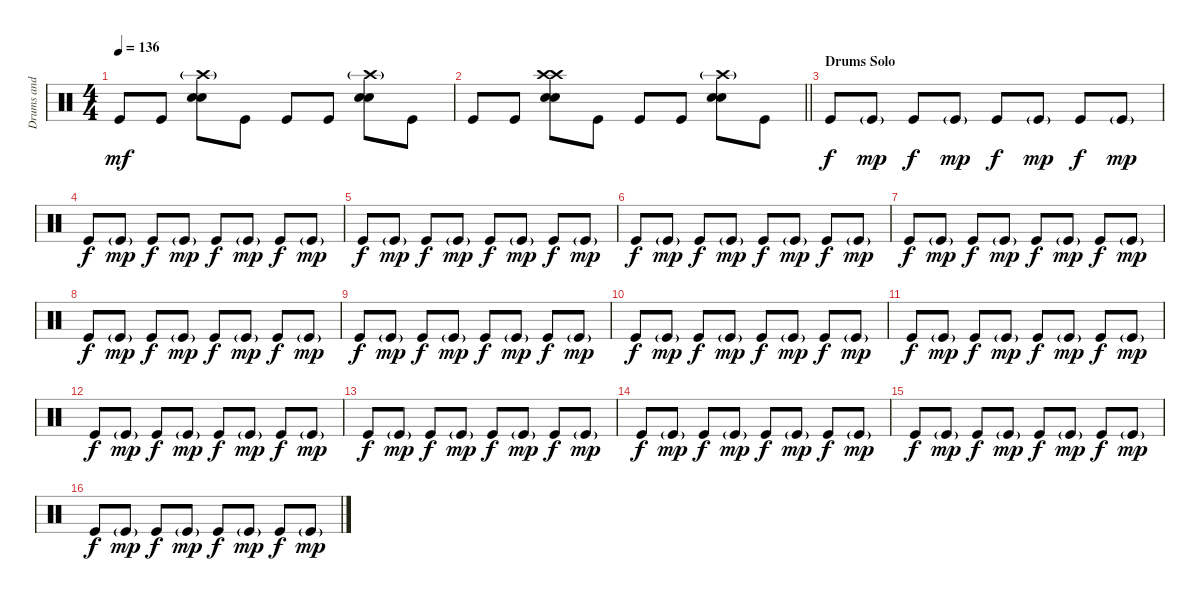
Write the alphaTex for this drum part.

\track ("Drums and Percussions" "Drums and ") {instrument percussion}
\staff {score}
\articulation defaults
\ts (4 4)
\tempo 136
\clef neutral
\ks c "Kick (hit)".8{dy mf} "Kick (hit)".8
("Crash high (hit)"{g} "Electric Snare (hit)" "Electric Snare (hit)").8 "Kick (hit)".8 "Kick (hit)".8 "Kick (hit)".8 ("Crash high (hit)"{g} "Electric Snare (hit)" "Electric Snare (hit)").8 "Kick (hit)".8 |
\barLineRight lightlight "Kick (hit)".8 "Kick (hit)".8
("Crash high (hit)" "Crash high (hit)" "Electric Snare (hit)" "Electric Snare (hit)").8 "Kick (hit)".8 "Kick (hit)".8 "Kick (hit)".8 ("Crash high (hit)"{g} "Electric Snare (hit)" "Electric Snare (hit)").8 "Kick (hit)".8 |
\section ("" "Drums Solo")
"Kick (hit)".8{dy f} "Kick (hit)"{g}.8{dy mp} "Kick (hit)".8{dy f} "Kick (hit)"{g}.8{dy mp} "Kick (hit)".8{dy f} "Kick (hit)"{g}.8{dy mp} "Kick (hit)".8{dy f} "Kick (hit)"{g}.8{dy mp} |
"Kick (hit)".8{dy f} "Kick (hit)"{g}.8{dy mp} "Kick (hit)".8{dy f} "Kick (hit)"{g}.8{dy mp} "Kick (hit)".8{dy f} "Kick (hit)"{g}.8{dy mp} "Kick (hit)".8{dy f} "Kick (hit)"{g}.8{dy mp} |
"Kick (hit)".8{dy f} "Kick (hit)"{g}.8{dy mp} "Kick (hit)".8{dy f} "Kick (hit)"{g}.8{dy mp} "Kick (hit)".8{dy f} "Kick (hit)"{g}.8{dy mp} "Kick (hit)".8{dy f} "Kick (hit)"{g}.8{dy mp} |
"Kick (hit)".8{dy f} "Kick (hit)"{g}.8{dy mp} "Kick (hit)".8{dy f} "Kick (hit)"{g}.8{dy mp} "Kick (hit)".8{dy f} "Kick (hit)"{g}.8{dy mp} "Kick (hit)".8{dy f} "Kick (hit)"{g}.8{dy mp} |
"Kick (hit)".8{dy f} "Kick (hit)"{g}.8{dy mp} "Kick (hit)".8{dy f} "Kick (hit)"{g}.8{dy mp} "Kick (hit)".8{dy f} "Kick (hit)"{g}.8{dy mp} "Kick (hit)".8{dy f} "Kick (hit)"{g}.8{dy mp} |
"Kick (hit)".8{dy f} "Kick (hit)"{g}.8{dy mp} "Kick (hit)".8{dy f} "Kick (hit)"{g}.8{dy mp} "Kick (hit)".8{dy f} "Kick (hit)"{g}.8{dy mp} "Kick (hit)".8{dy f} "Kick (hit)"{g}.8{dy mp} |
"Kick (hit)".8{dy f} "Kick (hit)"{g}.8{dy mp} "Kick (hit)".8{dy f} "Kick (hit)"{g}.8{dy mp} "Kick (hit)".8{dy f} "Kick (hit)"{g}.8{dy mp} "Kick (hit)".8{dy f} "Kick (hit)"{g}.8{dy mp} |
"Kick (hit)".8{dy f} "Kick (hit)"{g}.8{dy mp} "Kick (hit)".8{dy f} "Kick (hit)"{g}.8{dy mp} "Kick (hit)".8{dy f} "Kick (hit)"{g}.8{dy mp} "Kick (hit)".8{dy f} "Kick (hit)"{g}.8{dy mp} |
"Kick (hit)".8{dy f} "Kick (hit)"{g}.8{dy mp} "Kick (hit)".8{dy f} "Kick (hit)"{g}.8{dy mp} "Kick (hit)".8{dy f} "Kick (hit)"{g}.8{dy mp} "Kick (hit)".8{dy f} "Kick (hit)"{g}.8{dy mp} |
"Kick (hit)".8{dy f} "Kick (hit)"{g}.8{dy mp} "Kick (hit)".8{dy f} "Kick (hit)"{g}.8{dy mp} "Kick (hit)".8{dy f} "Kick (hit)"{g}.8{dy mp} "Kick (hit)".8{dy f} "Kick (hit)"{g}.8{dy mp} |
"Kick (hit)".8{dy f} "Kick (hit)"{g}.8{dy mp} "Kick (hit)".8{dy f} "Kick (hit)"{g}.8{dy mp} "Kick (hit)".8{dy f} "Kick (hit)"{g}.8{dy mp} "Kick (hit)".8{dy f} "Kick (hit)"{g}.8{dy mp} |
"Kick (hit)".8{dy f} "Kick (hit)"{g}.8{dy mp} "Kick (hit)".8{dy f} "Kick (hit)"{g}.8{dy mp} "Kick (hit)".8{dy f} "Kick (hit)"{g}.8{dy mp} "Kick (hit)".8{dy f} "Kick (hit)"{g}.8{dy mp} |
"Kick (hit)".8{dy f} "Kick (hit)"{g}.8{dy mp} "Kick (hit)".8{dy f} "Kick (hit)"{g}.8{dy mp} "Kick (hit)".8{dy f} "Kick (hit)"{g}.8{dy mp} "Kick (hit)".8{dy f} "Kick (hit)"{g}.8{dy mp} |
"Kick (hit)".8{dy f} "Kick (hit)"{g}.8{dy mp} "Kick (hit)".8{dy f} "Kick (hit)"{g}.8{dy mp} "Kick (hit)".8{dy f} "Kick (hit)"{g}.8{dy mp} "Kick (hit)".8{dy f} "Kick (hit)"{g}.8{dy mp}
